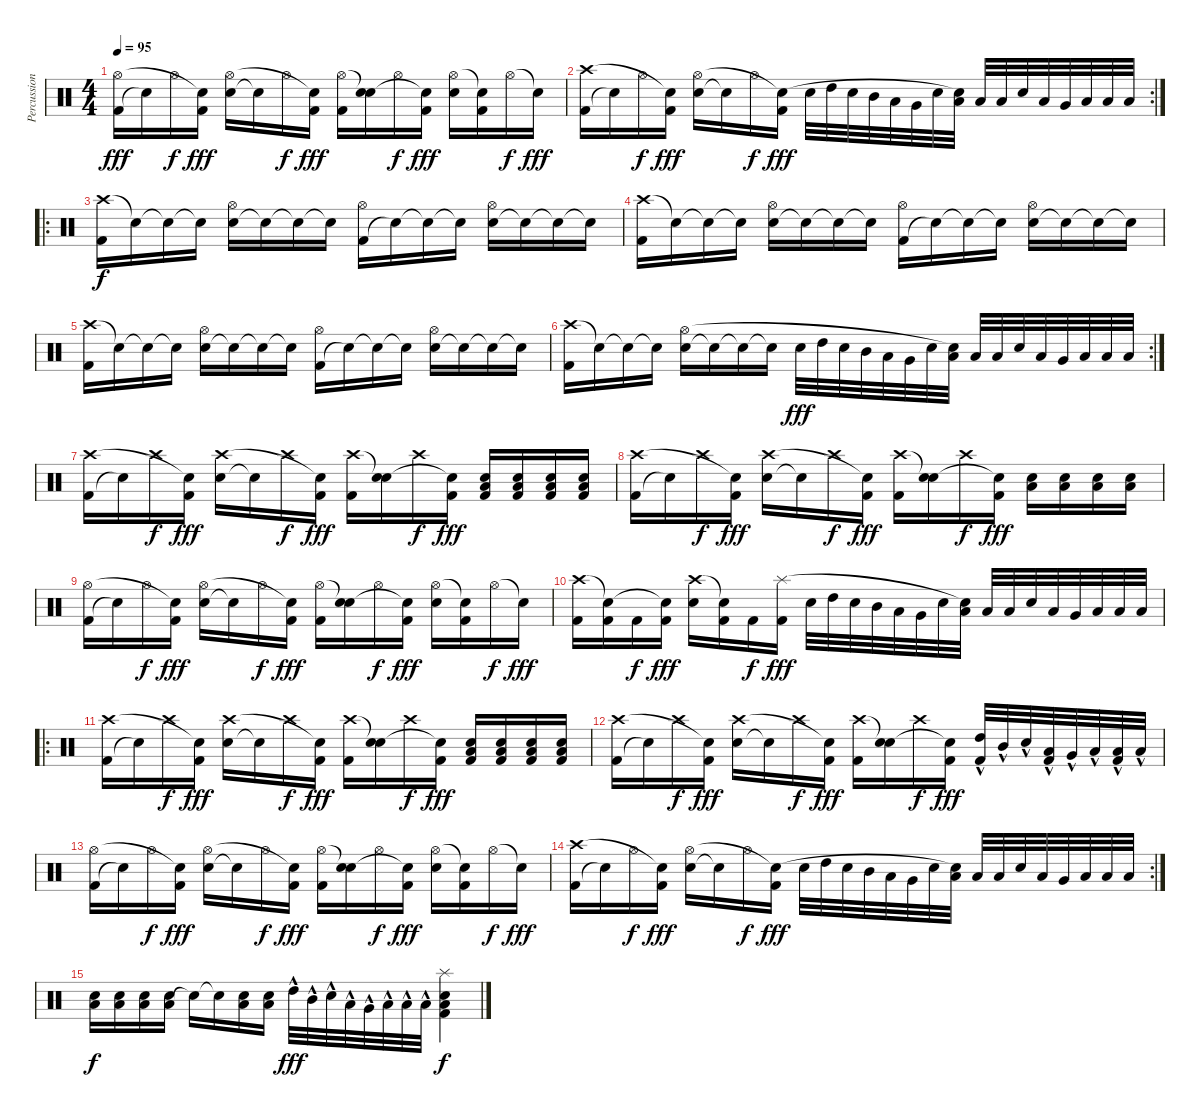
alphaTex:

\track ("Percussion" "Percussion") {instrument percussion}
\staff {score}
\articulation defaults
\ts (4 4)
\tempo 95
\clef neutral
\ks c
("Kick (hit) 2" "Hi-Hat (open)").16{dy fff} "Snare (hit)"{t}.16 "Hi-Hat (open)".16{dy f} ("Kick (hit) 2" "Snare (hit)"{t}).16{dy fff} ("Electric Snare (hit)" "Hi-Hat (open)").16 "Snare (hit)"{t}.16 "Hi-Hat (open)".16{dy f} ("Kick (hit) 2" "Snare (hit)"{t}).16{dy fff} ("Kick (hit) 2" "Hi-Hat (open)").16 ("Electric Snare (hit)" "Snare (hit)"{t}).16 "Hi-Hat (open)".16{dy f} ("Kick (hit) 2" "Snare (hit)"{t}).16{dy fff} ("Electric Snare (hit)" "Hi-Hat (open)").16 ("Kick (hit) 2" "Snare (hit)"{t}).16 "Hi-Hat (open)".16{dy f} "Snare (hit)"{t}.16{dy fff} |
\rc 2
("Kick (hit) 2" "Crash high (hit)").16 "Snare (hit)"{t}.16 "Hi-Hat (open)".16{dy f} ("Kick (hit) 2" "Snare (hit)"{t}).16{dy fff} ("Electric Snare (hit)" "Hi-Hat (open)").16 "Snare (hit)"{t}.16 "Hi-Hat (open)".16{dy f} ("Kick (hit) 2" "Snare (hit)"{t}).16{dy fff} "Electric Snare (hit)".32 "High Tom (hit)".32 "Electric Snare (hit)".32 "Mid Tom (hit)".32 "Low Tom (hit)".32 "Very Low Tom (hit)".32 "Electric Snare (hit)".32 ("Low Floor Tom (hit)" "Snare (hit)"{t}).32 "Low Tom (hit)".32 "Low Tom (hit)".32 "Electric Snare (hit)".32 "Low Tom (hit)".32 "Very Low Tom (hit)".32 "Low Floor Tom (hit)".32 "Low Floor Tom (hit)".32 "Low Floor Tom (hit)".32 |
\ro
("Crash high (hit)" "Kick (hit) 2").16{dy f} "Snare (hit)"{t}.16 "Snare (hit)"{t}.16 "Snare (hit)"{t}.16 ("Electric Snare (hit)" "Hi-Hat (open)").16 "Snare (hit)"{t}.16 "Snare (hit)"{t}.16 "Snare (hit)"{t}.16 ("Kick (hit) 2" "Hi-Hat (open)").16 "Snare (hit)"{t}.16 "Snare (hit)"{t}.16 "Snare (hit)"{t}.16 ("Electric Snare (hit)" "Hi-Hat (open)").16 "Snare (hit)"{t}.16 "Snare (hit)"{t}.16 "Snare (hit)"{t}.16 |
("Crash high (hit)" "Kick (hit) 2").16 "Snare (hit)"{t}.16 "Snare (hit)"{t}.16 "Snare (hit)"{t}.16 ("Electric Snare (hit)" "Hi-Hat (open)").16 "Snare (hit)"{t}.16 "Snare (hit)"{t}.16 "Snare (hit)"{t}.16 ("Kick (hit) 2" "Hi-Hat (open)").16 "Snare (hit)"{t}.16 "Snare (hit)"{t}.16 "Snare (hit)"{t}.16 ("Electric Snare (hit)" "Hi-Hat (open)").16 "Snare (hit)"{t}.16 "Snare (hit)"{t}.16 "Snare (hit)"{t}.16 |
("Crash high (hit)" "Kick (hit) 2").16 "Snare (hit)"{t}.16 "Snare (hit)"{t}.16 "Snare (hit)"{t}.16 ("Electric Snare (hit)" "Hi-Hat (open)").16 "Snare (hit)"{t}.16 "Snare (hit)"{t}.16 "Snare (hit)"{t}.16 ("Kick (hit) 2" "Hi-Hat (open)").16 "Snare (hit)"{t}.16 "Snare (hit)"{t}.16 "Snare (hit)"{t}.16 ("Electric Snare (hit)" "Hi-Hat (open)").16 "Snare (hit)"{t}.16 "Snare (hit)"{t}.16 "Snare (hit)"{t}.16 |
\rc 2
("Crash high (hit)" "Kick (hit) 2").16 "Snare (hit)"{t}.16 "Snare (hit)"{t}.16 "Snare (hit)"{t}.16 ("Electric Snare (hit)" "Hi-Hat (open)").16 "Snare (hit)"{t}.16 "Snare (hit)"{t}.16 "Snare (hit)"{t}.16 "Electric Snare (hit)".32{dy fff} "High Tom (hit)".32 "Electric Snare (hit)".32 "Mid Tom (hit)".32 "Low Tom (hit)".32 "Very Low Tom (hit)".32 "Electric Snare (hit)".32 ("Low Floor Tom (hit)" "Snare (hit)"{t}).32 "Low Tom (hit)".32 "Low Tom (hit)".32 "Electric Snare (hit)".32 "Low Tom (hit)".32 "Very Low Tom (hit)".32 "Low Floor Tom (hit)".32 "Low Floor Tom (hit)".32 "Low Floor Tom (hit)".32 |
("Kick (hit) 2" "Crash high (hit)").16 "Snare (hit)"{t}.16 "Crash high (hit)".16{dy f} ("Kick (hit) 2" "Snare (hit)"{t}).16{dy fff} ("Electric Snare (hit)" "Crash high (hit)").16 "Snare (hit)"{t}.16 "Crash high (hit)".16{dy f} ("Kick (hit) 2" "Snare (hit)"{t}).16{dy fff} ("Kick (hit) 2" "Crash high (hit)").16 ("Electric Snare (hit)" "Snare (hit)"{t}).16 "Crash high (hit)".16{dy f} ("Kick (hit) 2" "Snare (hit)"{t}).16{dy fff} ("Kick (hit) 2" "Low Floor Tom (hit)" "Electric Snare (hit)").16 ("Kick (hit) 2" "Low Floor Tom (hit)" "Electric Snare (hit)").16 ("Kick (hit) 2" "Low Floor Tom (hit)" "Electric Snare (hit)").16 ("Kick (hit) 2" "Low Floor Tom (hit)" "Electric Snare (hit)").16 |
("Kick (hit) 2" "Crash high (hit)").16 "Snare (hit)"{t}.16 "Crash high (hit)".16{dy f} ("Kick (hit) 2" "Snare (hit)"{t}).16{dy fff} ("Electric Snare (hit)" "Crash high (hit)").16 "Snare (hit)"{t}.16 "Crash high (hit)".16{dy f} ("Kick (hit) 2" "Snare (hit)"{t}).16{dy fff} ("Kick (hit) 2" "Crash high (hit)").16 ("Electric Snare (hit)" "Snare (hit)"{t}).16 "Crash high (hit)".16{dy f} ("Kick (hit) 2" "Snare (hit)"{t}).16{dy fff} ("Electric Snare (hit)" "Low Floor Tom (hit)").16 ("Electric Snare (hit)" "Low Floor Tom (hit)").16 ("Electric Snare (hit)" "Low Floor Tom (hit)").16 ("Electric Snare (hit)" "Low Floor Tom (hit)").16 |
("Kick (hit) 2" "Hi-Hat (open)").16 "Snare (hit)"{t}.16 "Hi-Hat (open)".16{dy f} ("Kick (hit) 2" "Snare (hit)"{t}).16{dy fff} ("Electric Snare (hit)" "Hi-Hat (open)").16 "Snare (hit)"{t}.16 "Hi-Hat (open)".16{dy f} ("Kick (hit) 2" "Snare (hit)"{t}).16{dy fff} ("Kick (hit) 2" "Hi-Hat (open)").16 ("Electric Snare (hit)" "Snare (hit)"{t}).16 "Hi-Hat (open)".16{dy f} ("Kick (hit) 2" "Snare (hit)"{t}).16{dy fff} ("Electric Snare (hit)" "Hi-Hat (open)").16 ("Kick (hit) 2" "Snare (hit)"{t}).16 "Hi-Hat (open)".16{dy f} "Snare (hit)"{t}.16{dy fff} |
("Kick (hit) 2" "Crash high (hit)").16 ("Kick (hit) 2" "Snare (hit)"{t}).16 "Kick (hit) 2".16{dy f} ("Kick (hit) 2" "Snare (hit)"{t}).16{dy fff} ("Electric Snare (hit)" "Crash high (hit)").16 ("Kick (hit) 2" "Snare (hit)"{t}).16 "Kick (hit) 2".16{dy f} ("Kick (hit) 2" "Splash (hit)").16{dy fff} "Electric Snare (hit)".32 "High Tom (hit)".32 "Electric Snare (hit)".32 "Mid Tom (hit)".32 "Low Tom (hit)".32 "Very Low Tom (hit)".32 "Electric Snare (hit)".32 ("Low Floor Tom (hit)" "Snare (hit)"{t}).32 "Low Tom (hit)".32 "Low Tom (hit)".32 "Electric Snare (hit)".32 "Low Tom (hit)".32 "Very Low Tom (hit)".32 "Low Floor Tom (hit)".32 "Low Floor Tom (hit)".32 "Low Floor Tom (hit)".32 |
\ro
("Kick (hit) 2" "Crash high (hit)").16 "Snare (hit)"{t}.16 "Crash high (hit)".16{dy f} ("Kick (hit) 2" "Snare (hit)"{t}).16{dy fff} ("Electric Snare (hit)" "Crash high (hit)").16 "Snare (hit)"{t}.16 "Crash high (hit)".16{dy f} ("Kick (hit) 2" "Snare (hit)"{t}).16{dy fff} ("Kick (hit) 2" "Crash high (hit)").16 ("Electric Snare (hit)" "Snare (hit)"{t}).16 "Crash high (hit)".16{dy f} ("Kick (hit) 2" "Snare (hit)"{t}).16{dy fff} ("Kick (hit) 2" "Low Floor Tom (hit)" "Electric Snare (hit)").16 ("Kick (hit) 2" "Low Floor Tom (hit)" "Electric Snare (hit)").16 ("Kick (hit) 2" "Low Floor Tom (hit)" "Electric Snare (hit)").16 ("Kick (hit) 2" "Low Floor Tom (hit)" "Electric Snare (hit)").16 |
("Kick (hit) 2" "Crash high (hit)").16 "Snare (hit)"{t}.16 "Crash high (hit)".16{dy f} ("Kick (hit) 2" "Snare (hit)"{t}).16{dy fff} ("Electric Snare (hit)" "Crash high (hit)").16 "Snare (hit)"{t}.16 "Crash high (hit)".16{dy f} ("Kick (hit) 2" "Snare (hit)"{t}).16{dy fff} ("Kick (hit) 2" "Crash high (hit)").16 ("Electric Snare (hit)" "Snare (hit)"{t}).16 "Crash high (hit)".16{dy f} ("Kick (hit) 2" "Snare (hit)"{t}).16{dy fff} ("High Tom (hit)"{hac} "Kick (hit) 2").32 "Mid Tom (hit)"{hac}.32 "Electric Snare (hit)"{hac}.32 ("Low Tom (hit)"{hac} "Kick (hit) 2").32 "Very Low Tom (hit)"{hac}.32 "Low Floor Tom (hit)"{hac}.32 ("Low Floor Tom (hit)"{hac} "Kick (hit) 2").32 "Low Floor Tom (hit)"{hac}.32 |
("Kick (hit) 2" "Hi-Hat (open)").16 "Snare (hit)"{t}.16 "Hi-Hat (open)".16{dy f} ("Kick (hit) 2" "Snare (hit)"{t}).16{dy fff} ("Electric Snare (hit)" "Hi-Hat (open)").16 "Snare (hit)"{t}.16 "Hi-Hat (open)".16{dy f} ("Kick (hit) 2" "Snare (hit)"{t}).16{dy fff} ("Kick (hit) 2" "Hi-Hat (open)").16 ("Electric Snare (hit)" "Snare (hit)"{t}).16 "Hi-Hat (open)".16{dy f} ("Kick (hit) 2" "Snare (hit)"{t}).16{dy fff} ("Electric Snare (hit)" "Hi-Hat (open)").16 ("Kick (hit) 2" "Snare (hit)"{t}).16 "Hi-Hat (open)".16{dy f} "Snare (hit)"{t}.16{dy fff} |
\rc 2
("Kick (hit) 2" "Crash high (hit)").16 "Snare (hit)"{t}.16 "Hi-Hat (open)".16{dy f} ("Kick (hit) 2" "Snare (hit)"{t}).16{dy fff} ("Electric Snare (hit)" "Hi-Hat (open)").16 "Snare (hit)"{t}.16 "Hi-Hat (open)".16{dy f} ("Kick (hit) 2" "Snare (hit)"{t}).16{dy fff} "Electric Snare (hit)".32 "High Tom (hit)".32 "Electric Snare (hit)".32 "Mid Tom (hit)".32 "Low Tom (hit)".32 "Very Low Tom (hit)".32 "Electric Snare (hit)".32 ("Low Floor Tom (hit)" "Snare (hit)"{t}).32 "Low Tom (hit)".32 "Low Tom (hit)".32 "Electric Snare (hit)".32 "Low Tom (hit)".32 "Very Low Tom (hit)".32 "Low Floor Tom (hit)".32 "Low Floor Tom (hit)".32 "Low Floor Tom (hit)".32 |
("Low Floor Tom (hit)" "Electric Snare (hit)").16{dy f} ("Low Floor Tom (hit)" "Electric Snare (hit)").16 ("Low Floor Tom (hit)" "Electric Snare (hit)").16 ("Low Floor Tom (hit)" "Electric Snare (hit)").16 "Snare (hit)"{t}.16 "Snare (hit)"{t}.16 ("Low Floor Tom (hit)" "Electric Snare (hit)").16 ("Low Floor Tom (hit)" "Electric Snare (hit)").16 "High Tom (hit)"{hac}.32{dy fff} "Mid Tom (hit)"{hac}.32 "Electric Snare (hit)"{hac}.32 "Low Tom (hit)"{hac}.32 "Very Low Tom (hit)"{hac}.32 "Low Floor Tom (hit)"{hac}.32 "Low Floor Tom (hit)"{hac}.32 "Low Floor Tom (hit)"{hac}.32 ("Kick (hit) 2" "Splash (hit)" "Electric Snare (hit)" "Low Floor Tom (hit)").4{dy f}
